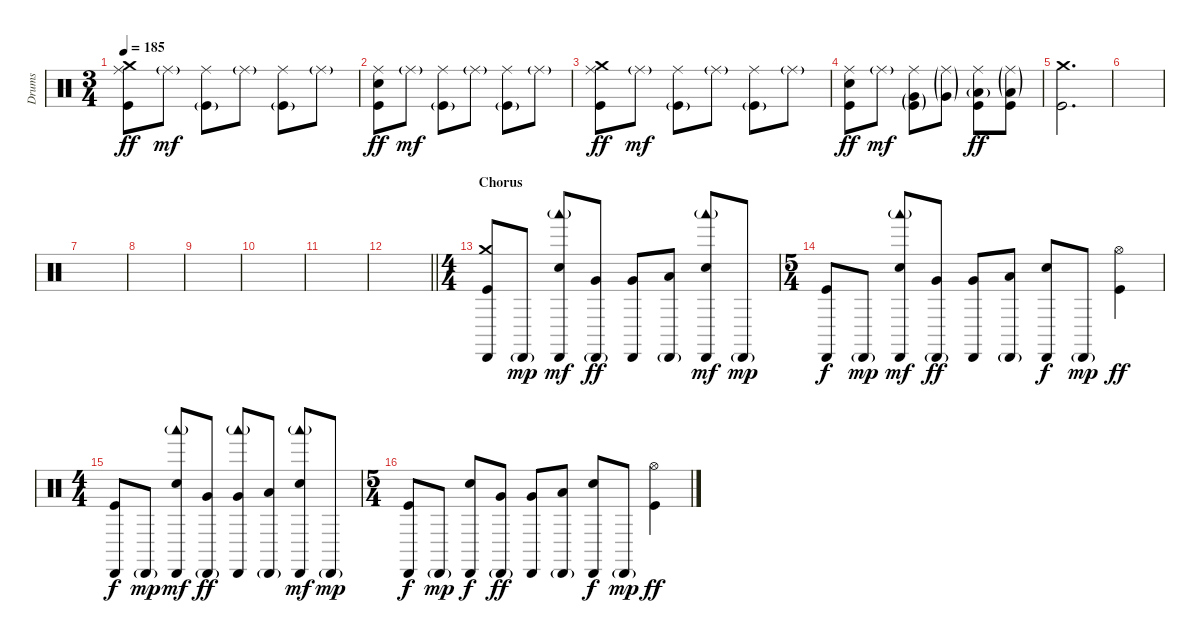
\track ("Drums" "Drums") {instrument percussion}
\staff {score}
\articulation defaults
\ts (3 4)
\tempo 185
\clef neutral
\ks c
("Crash medium (hit)" "Ride (middle)" "Kick (hit)").8{dy ff} "Ride (middle)"{g}.8{dy mf} ("Ride (middle)" "Kick (hit)"{g}).8 "Ride (middle)"{g}.8 ("Ride (middle)" "Kick (hit)"{g}).8 "Ride (middle)"{g}.8 |
("Ride (middle)" "Snare (hit) 2" "Kick (hit)").8{dy ff} "Ride (middle)"{g}.8{dy mf} ("Ride (middle)" "Kick (hit)"{g}).8 "Ride (middle)"{g}.8 ("Ride (middle)" "Kick (hit)"{g}).8 "Ride (middle)"{g}.8 |
("Crash medium (hit)" "Ride (middle)" "Kick (hit)").8{dy ff} "Ride (middle)"{g}.8{dy mf} ("Ride (middle)" "Kick (hit)"{g}).8 "Ride (middle)"{g}.8 ("Ride (middle)" "Kick (hit)"{g}).8 "Ride (middle)"{g}.8 |
("Ride (middle)" "Snare (hit) 2" "Kick (hit)").8{dy ff} "Ride (middle)"{g}.8{dy mf} ("Ride (middle)" "Very Low Tom (hit)"{g} "Kick (hit)"{g}).8 ("Ride (middle)"{g} "Very Low Tom (hit)"{g}).8 ("Ride (middle)" "Low Floor Tom (hit)"{g} "Kick (hit)").8{dy ff} ("Ride (middle)"{g} "Low Floor Tom (hit)"{g} "Kick (hit)").8 |
("Crash medium (hit)" "Kick (hit)").2{d} |
|
|
|
|
|
|
\barLineRight lightlight
|
\ts (4 4)
\section ("" "Chorus")
("Crash medium (hit)" "Cabasa (hit)" "Kick (hit)").8 "Cabasa (hit)"{g}.8{dy mp} ("Woodblock low (hit)"{g} "Cabasa (hit)" "Snare (hit) 2").8{dy mf} ("Cabasa (hit)"{g} "Very Low Tom (hit)").8{dy ff} ("Cabasa (hit)" "Very Low Tom (hit)").8 ("Cabasa (hit)"{g} "Low Floor Tom (hit)").8 ("Woodblock low (hit)"{g} "Cabasa (hit)" "Snare (hit) 2").8{dy mf} "Cabasa (hit)"{g}.8{dy mp} |
\ts (5 4)
("Cabasa (hit)" "Kick (hit)").8{dy f} "Cabasa (hit)"{g}.8{dy mp} ("Woodblock low (hit)"{g} "Cabasa (hit)" "Snare (hit) 2").8{dy mf} ("Cabasa (hit)"{g} "Very Low Tom (hit)").8{dy ff} ("Cabasa (hit)" "Very Low Tom (hit)").8 ("Cabasa (hit)"{g} "Low Floor Tom (hit)").8 ("Cabasa (hit)" "Snare (hit) 2").8{dy f} "Cabasa (hit)"{g}.8{dy mp} ("Hi-Hat (open)" "Kick (hit)").4{dy ff} |
\ts (4 4)
("Cabasa (hit)" "Kick (hit)").8{dy f} "Cabasa (hit)"{g}.8{dy mp} ("Woodblock low (hit)"{g} "Cabasa (hit)" "Snare (hit) 2").8{dy mf} ("Cabasa (hit)"{g} "Very Low Tom (hit)").8{dy ff} ("Woodblock low (hit)"{g} "Cabasa (hit)" "Very Low Tom (hit)").8 ("Cabasa (hit)"{g} "Low Floor Tom (hit)").8 ("Woodblock low (hit)"{g} "Cabasa (hit)" "Snare (hit) 2").8{dy mf} "Cabasa (hit)"{g}.8{dy mp} |
\ts (5 4)
("Cabasa (hit)" "Kick (hit)").8{dy f} "Cabasa (hit)"{g}.8{dy mp} ("Cabasa (hit)" "Snare (hit) 2").8{dy f} ("Cabasa (hit)"{g} "Very Low Tom (hit)").8{dy ff} ("Cabasa (hit)" "Very Low Tom (hit)").8 ("Cabasa (hit)"{g} "Low Floor Tom (hit)").8 ("Cabasa (hit)" "Snare (hit) 2").8{dy f} "Cabasa (hit)"{g}.8{dy mp} ("Hi-Hat (open)" "Kick (hit)").4{dy ff}
